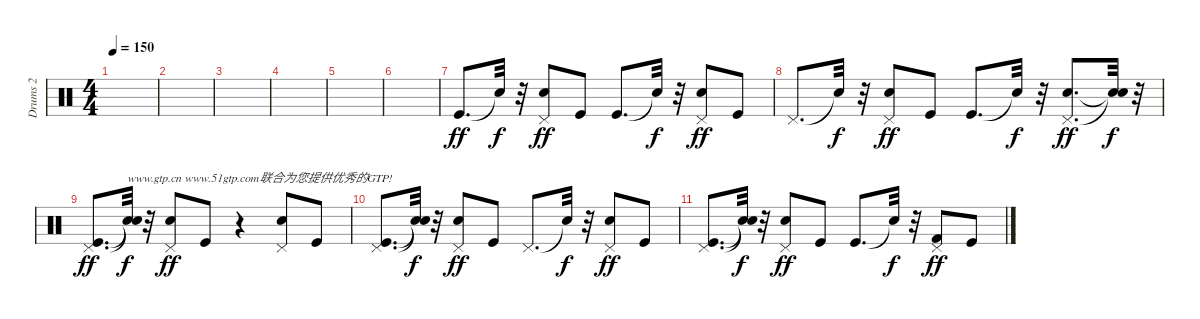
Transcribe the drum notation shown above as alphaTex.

\track ("Drums 2" "Drums 2") {instrument percussion}
\staff {score}
\articulation defaults
\ts (4 4)
\tempo 150
\clef neutral
\ks c
|
|
|
|
|
|
"Kick (hit)".8{d dy ff} "Snare (hit)"{t}.32{dy f} r.32 ("Snare (hit) 2" "Pedal Hi-Hat (hit)").8{dy ff} "Kick (hit)".8 "Kick (hit)".8{d} "Snare (hit)"{t}.32{dy f} r.32 ("Snare (hit) 2" "Pedal Hi-Hat (hit)").8{dy ff} "Kick (hit)".8 |
"Pedal Hi-Hat (hit)".8{d} "Snare (hit)"{t}.32{dy f} r.32 ("Snare (hit) 2" "Pedal Hi-Hat (hit)").8{dy ff} "Kick (hit)".8 "Kick (hit)".8{d} "Snare (hit)"{t}.32{dy f} r.32 ("Snare (hit) 2" "Pedal Hi-Hat (hit)").8{d dy ff} ("Snare (hit)"{t} "Snare (hit)"{t}).32{dy f} r.32 |
("Kick (hit)" "Pedal Hi-Hat (hit)").8{d dy ff} ("Snare (hit)"{t} "Snare (hit)"{t}).32{txt "www.gtp.cn www.51gtp.com联合为您提供优秀的GTP!" dy f} r.32 ("Snare (hit) 2" "Pedal Hi-Hat (hit)").8{dy ff} "Kick (hit)".8 r.4 ("Snare (hit) 2" "Pedal Hi-Hat (hit)").8 "Kick (hit)".8 |
("Kick (hit)" "Pedal Hi-Hat (hit)").8{d} ("Snare (hit)"{t} "Snare (hit)"{t}).32{dy f} r.32 ("Snare (hit) 2" "Pedal Hi-Hat (hit)").8{dy ff} "Kick (hit)".8 "Pedal Hi-Hat (hit)".8{d} "Snare (hit)"{t}.32{dy f} r.32 ("Snare (hit) 2" "Pedal Hi-Hat (hit)").8{dy ff} "Kick (hit)".8 |
("Kick (hit)" "Pedal Hi-Hat (hit)").8{d} ("Snare (hit)"{t} "Snare (hit)"{t}).32{dy f} r.32 ("Snare (hit) 2" "Pedal Hi-Hat (hit)").8{dy ff} "Kick (hit)".8 "Kick (hit)".8{d} "Snare (hit)"{t}.32{dy f} r.32 ("Kick (hit) 2" "Pedal Hi-Hat (hit)").8{dy ff} "Kick (hit)".8
